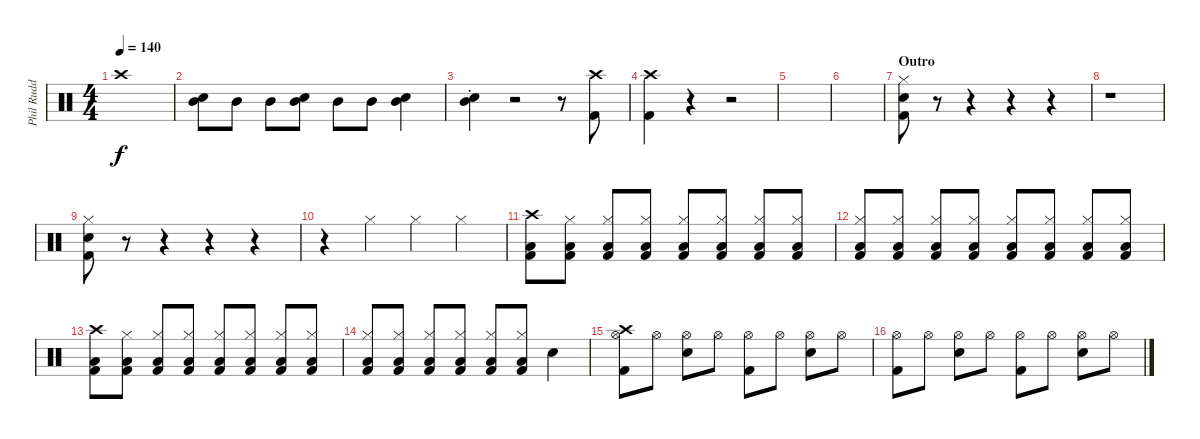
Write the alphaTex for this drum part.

\track ("Phil Rudd" "Phil Rudd") {instrument percussion}
\staff {score}
\articulation defaults
\ts (4 4)
\tempo 140
\clef neutral
\ks c "Crash high (hit)".1{dy f}
|
("Mid Tom (hit)" "Snare (hit) 2").8 "Mid Tom (hit)".8 "Mid Tom (hit)".8 ("Mid Tom (hit)" "Snare (hit) 2").8 "Mid Tom (hit)".8 "Mid Tom (hit)".8 ("Mid Tom (hit)" "Snare (hit) 2").4 |
("Mid Tom (hit)"{st} "Snare (hit) 2"{st}).4 r.2 r.8 ("Crash high (hit)" "Kick (hit) 2").8 |
("Crash high (hit)" "Kick (hit) 2").4 r.4 r.2 |
|
|
\section ("" "Outro")
("Snare (hit) 2" "Hi-Hat (closed)" "Kick (hit) 2").8 r.8 r.4 r.4 r.4 |
r.1 |
("Snare (hit) 2" "Hi-Hat (closed)" "Kick (hit) 2").8 r.8 r.4 r.4 r.4 |
r.4 "Hi-Hat (closed)".4 "Hi-Hat (closed)".4 "Hi-Hat (closed)".4 |
("Crash high (hit)" "Kick (hit) 2" "Low Floor Tom (hit)").8 ("Hi-Hat (closed)" "Kick (hit) 2" "Low Floor Tom (hit)").8{volume 10} ("Hi-Hat (closed)" "Kick (hit) 2" "Low Floor Tom (hit)").8 ("Hi-Hat (closed)" "Kick (hit) 2" "Low Floor Tom (hit)").8 ("Hi-Hat (closed)" "Kick (hit) 2" "Low Floor Tom (hit)").8 ("Hi-Hat (closed)" "Kick (hit) 2" "Low Floor Tom (hit)").8 ("Hi-Hat (closed)" "Kick (hit) 2" "Low Floor Tom (hit)").8 ("Hi-Hat (closed)" "Kick (hit) 2" "Low Floor Tom (hit)").8 |
("Hi-Hat (closed)" "Kick (hit) 2" "Low Floor Tom (hit)").8{volume 15} ("Hi-Hat (closed)" "Kick (hit) 2" "Low Floor Tom (hit)").8 ("Hi-Hat (closed)" "Kick (hit) 2" "Low Floor Tom (hit)").8 ("Hi-Hat (closed)" "Kick (hit) 2" "Low Floor Tom (hit)").8 ("Hi-Hat (closed)" "Kick (hit) 2" "Low Floor Tom (hit)").8 ("Hi-Hat (closed)" "Kick (hit) 2" "Low Floor Tom (hit)").8 ("Hi-Hat (closed)" "Kick (hit) 2" "Low Floor Tom (hit)").8 ("Hi-Hat (closed)" "Kick (hit) 2" "Low Floor Tom (hit)").8 |
("Crash high (hit)" "Kick (hit) 2" "Low Floor Tom (hit)").8 ("Hi-Hat (closed)" "Kick (hit) 2" "Low Floor Tom (hit)").8 ("Hi-Hat (closed)" "Kick (hit) 2" "Low Floor Tom (hit)").8 ("Hi-Hat (closed)" "Kick (hit) 2" "Low Floor Tom (hit)").8 ("Hi-Hat (closed)" "Kick (hit) 2" "Low Floor Tom (hit)").8 ("Hi-Hat (closed)" "Kick (hit) 2" "Low Floor Tom (hit)").8 ("Hi-Hat (closed)" "Kick (hit) 2" "Low Floor Tom (hit)").8 ("Hi-Hat (closed)" "Kick (hit) 2" "Low Floor Tom (hit)").8 |
("Hi-Hat (closed)" "Kick (hit) 2" "Low Floor Tom (hit)").8 ("Hi-Hat (closed)" "Kick (hit) 2" "Low Floor Tom (hit)").8 ("Hi-Hat (closed)" "Kick (hit) 2" "Low Floor Tom (hit)").8 ("Hi-Hat (closed)" "Kick (hit) 2" "Low Floor Tom (hit)").8 ("Hi-Hat (closed)" "Kick (hit) 2" "Low Floor Tom (hit)").8 ("Hi-Hat (closed)" "Kick (hit) 2" "Low Floor Tom (hit)").8 "Snare (hit) 2".4 |
("Crash high (hit)" "Hi-Hat (open)" "Kick (hit) 2").8{volume 15} "Hi-Hat (open)".8 ("Hi-Hat (open)" "Snare (hit) 2").8 "Hi-Hat (open)".8 ("Hi-Hat (open)" "Kick (hit) 2").8 "Hi-Hat (open)".8 ("Hi-Hat (open)" "Snare (hit) 2").8 "Hi-Hat (open)".8 |
("Hi-Hat (open)" "Kick (hit) 2").8 "Hi-Hat (open)".8 ("Hi-Hat (open)" "Snare (hit) 2").8 "Hi-Hat (open)".8 ("Hi-Hat (open)" "Kick (hit) 2").8 "Hi-Hat (open)".8 ("Hi-Hat (open)" "Snare (hit) 2").8 "Hi-Hat (open)".8
